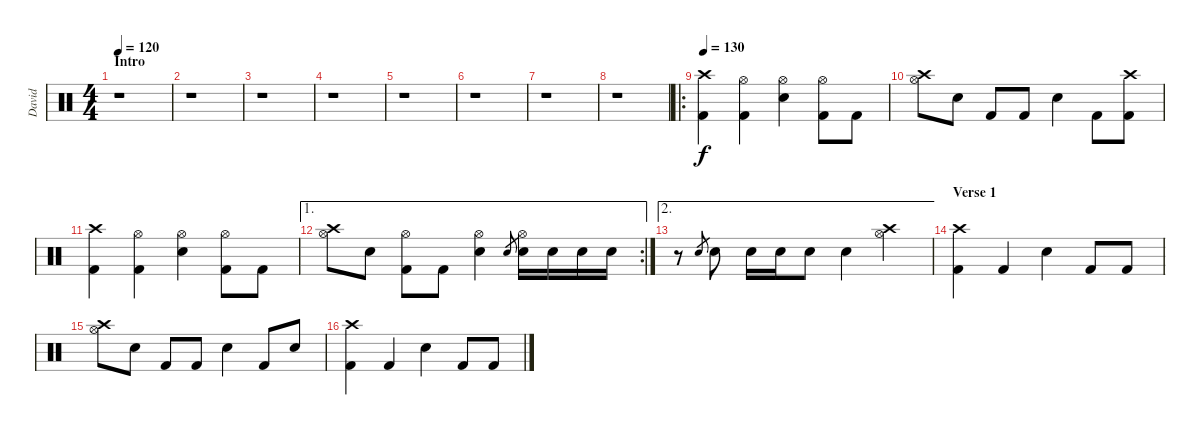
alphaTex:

\track ("David" "David") {instrument percussion}
\staff {score}
\articulation defaults
\ts (4 4)
\section ("" "Intro")
\tempo 120
\clef neutral
\ks c
r.1{dy f} |
r.1 |
r.1 |
r.1 |
r.1 |
r.1 |
r.1 |
r.1 |
\ro
\tempo 130
("Crash high (hit)" "Kick (hit) 2").4{volume 13} ("Hi-Hat (open)" "Kick (hit) 2").4 ("Hi-Hat (open)" "Electric Snare (hit)").4 ("Hi-Hat (open)" "Kick (hit) 2").8 "Kick (hit) 2".8 |
("Crash high (hit)" "Hi-Hat (open)").8 "Electric Snare (hit)".8 "Kick (hit) 2".8 "Kick (hit) 2".8 "Electric Snare (hit)".4 "Kick (hit) 2".8 ("Crash high (hit)" "Kick (hit) 2").8 |
("Kick (hit) 2" "Crash high (hit)").4 ("Kick (hit) 2" "Hi-Hat (open)").4 ("Electric Snare (hit)" "Hi-Hat (open)").4 ("Kick (hit) 2" "Hi-Hat (open)").8 "Kick (hit) 2".8 |
\ae 1
\rc 2
("Crash high (hit)" "Hi-Hat (open)").8 "Electric Snare (hit)".8 ("Kick (hit) 2" "Hi-Hat (open)").8 "Kick (hit) 2".8 ("Electric Snare (hit)" "Hi-Hat (open)").4 "Snare (hit) 2".8{gr} ("Snare (hit) 2" "Hi-Hat (open)").16 "Snare (hit) 2".16 "Snare (hit) 2".16 "Snare (hit) 2".16 |
\ae 2
r.8 "Snare (hit) 2".8{gr} "Electric Snare (hit)".8 "Electric Snare (hit)".16 "Electric Snare (hit)".16 "Electric Snare (hit)".8 "Electric Snare (hit)".4 ("Crash high (hit)" "Hi-Hat (open)").4 |
\section ("" "Verse 1")
("Kick (hit) 2" "Crash high (hit)").4 "Kick (hit) 2".4 "Electric Snare (hit)".4 "Kick (hit) 2".8 "Kick (hit) 2".8 |
("Crash high (hit)" "Hi-Hat (open)").8 "Electric Snare (hit)".8 "Kick (hit) 2".8 "Kick (hit) 2".8 "Electric Snare (hit)".4 "Kick (hit) 2".8 "Snare (hit) 2".8 |
("Kick (hit) 2" "Crash high (hit)").4 "Kick (hit) 2".4 "Electric Snare (hit)".4 "Kick (hit) 2".8 "Kick (hit) 2".8
